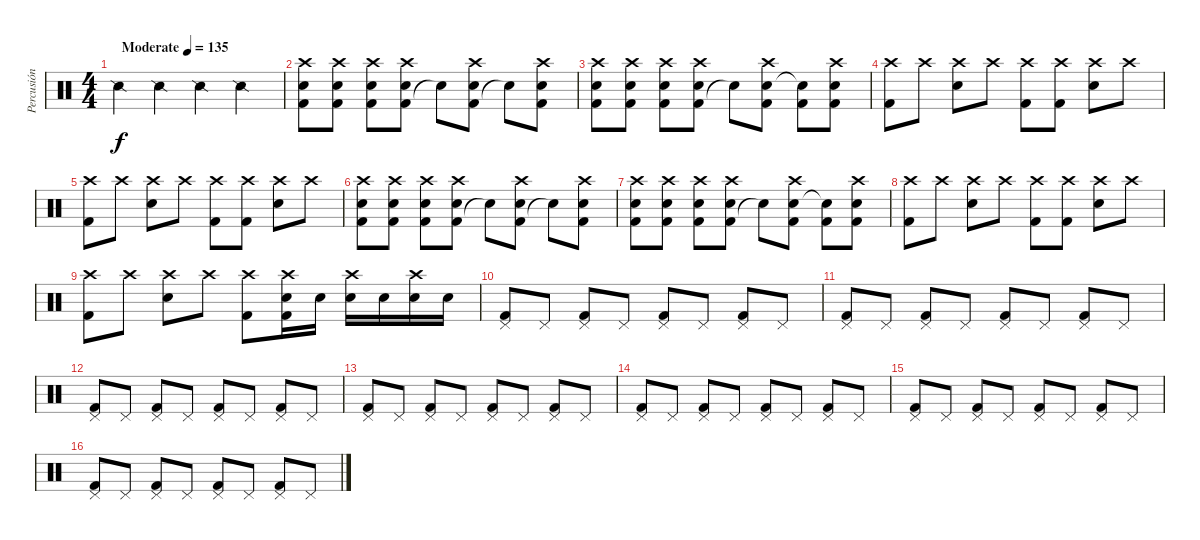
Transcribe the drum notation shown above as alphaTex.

\track ("Percusión" "Percusión") {instrument percussion}
\staff {score}
\articulation defaults
\ts (4 4)
\tempo (135 "Moderate")
\clef neutral
\ks c "Snare (side stick) 2".4{dy f} "Snare (side stick) 2".4 "Snare (side stick) 2".4 "Snare (side stick) 2".4
|
("Kick (hit) 2" "Snare (hit) 2" "Crash high (hit)").8 ("Kick (hit) 2" "Snare (hit) 2" "Crash high (hit)").8 ("Kick (hit) 2" "Snare (hit) 2" "Crash high (hit)").8 ("Kick (hit) 2" "Snare (hit) 2" "Crash high (hit)").8 "Snare (hit)"{t}.8 ("Kick (hit) 2" "Snare (hit) 2" "Crash high (hit)").8 "Snare (hit)"{t}.8 ("Kick (hit) 2" "Snare (hit) 2" "Crash high (hit)").8 |
("Kick (hit) 2" "Snare (hit) 2" "Crash high (hit)").8 ("Kick (hit) 2" "Snare (hit) 2" "Crash high (hit)").8 ("Kick (hit) 2" "Snare (hit) 2" "Crash high (hit)").8 ("Kick (hit) 2" "Snare (hit) 2" "Crash high (hit)").8 "Snare (hit)"{t}.8 ("Kick (hit) 2" "Snare (hit) 2" "Crash high (hit)").8 ("Kick (hit) 2" "Snare (hit)"{t}).8 ("Kick (hit) 2" "Snare (hit) 2" "Crash high (hit)").8 |
("Kick (hit) 2" "Crash high (hit)").8 "Crash high (hit)".8 ("Snare (hit) 2" "Crash high (hit)").8 "Crash high (hit)".8 ("Kick (hit) 2" "Crash high (hit)").8 ("Kick (hit) 2" "Crash high (hit)").8 ("Snare (hit) 2" "Crash high (hit)").8 "Crash high (hit)".8 |
("Kick (hit) 2" "Crash high (hit)").8 "Crash high (hit)".8 ("Snare (hit) 2" "Crash high (hit)").8 "Crash high (hit)".8 ("Kick (hit) 2" "Crash high (hit)").8 ("Kick (hit) 2" "Crash high (hit)").8 ("Snare (hit) 2" "Crash high (hit)").8 "Crash high (hit)".8 |
("Kick (hit) 2" "Snare (hit) 2" "Crash high (hit)").8 ("Kick (hit) 2" "Snare (hit) 2" "Crash high (hit)").8 ("Kick (hit) 2" "Snare (hit) 2" "Crash high (hit)").8 ("Kick (hit) 2" "Snare (hit) 2" "Crash high (hit)").8 "Snare (hit)"{t}.8 ("Kick (hit) 2" "Snare (hit) 2" "Crash high (hit)").8 "Snare (hit)"{t}.8 ("Kick (hit) 2" "Snare (hit) 2" "Crash high (hit)").8 |
("Kick (hit) 2" "Snare (hit) 2" "Crash high (hit)").8 ("Kick (hit) 2" "Snare (hit) 2" "Crash high (hit)").8 ("Kick (hit) 2" "Snare (hit) 2" "Crash high (hit)").8 ("Kick (hit) 2" "Snare (hit) 2" "Crash high (hit)").8 "Snare (hit)"{t}.8 ("Kick (hit) 2" "Snare (hit) 2" "Crash high (hit)").8 ("Kick (hit) 2" "Snare (hit)"{t}).8 ("Kick (hit) 2" "Snare (hit) 2" "Crash high (hit)").8 |
("Kick (hit) 2" "Crash high (hit)").8 "Crash high (hit)".8 ("Snare (hit) 2" "Crash high (hit)").8 "Crash high (hit)".8 ("Kick (hit) 2" "Crash high (hit)").8 ("Kick (hit) 2" "Crash high (hit)").8 ("Snare (hit) 2" "Crash high (hit)").8 "Crash high (hit)".8 |
("Kick (hit) 2" "Crash high (hit)").8 "Crash high (hit)".8 ("Snare (hit) 2" "Crash high (hit)").8 "Crash high (hit)".8 ("Kick (hit) 2" "Crash high (hit)").8 ("Kick (hit) 2" "Snare (hit) 2" "Crash high (hit)").16 "Snare (hit) 2".16 ("Snare (hit) 2" "Crash high (hit)").16 "Snare (hit) 2".16 ("Snare (hit) 2" "Crash high (hit)").16 "Snare (hit) 2".16 |
("Kick (hit) 2" "Pedal Hi-Hat (hit)").8 "Pedal Hi-Hat (hit)".8 ("Kick (hit) 2" "Pedal Hi-Hat (hit)").8 "Pedal Hi-Hat (hit)".8 ("Kick (hit) 2" "Pedal Hi-Hat (hit)").8 "Pedal Hi-Hat (hit)".8 ("Kick (hit) 2" "Pedal Hi-Hat (hit)").8 "Pedal Hi-Hat (hit)".8 |
("Kick (hit) 2" "Pedal Hi-Hat (hit)").8 "Pedal Hi-Hat (hit)".8 ("Kick (hit) 2" "Pedal Hi-Hat (hit)").8 "Pedal Hi-Hat (hit)".8 ("Kick (hit) 2" "Pedal Hi-Hat (hit)").8 "Pedal Hi-Hat (hit)".8 ("Kick (hit) 2" "Pedal Hi-Hat (hit)").8 "Pedal Hi-Hat (hit)".8 |
("Kick (hit) 2" "Pedal Hi-Hat (hit)").8 "Pedal Hi-Hat (hit)".8 ("Kick (hit) 2" "Pedal Hi-Hat (hit)").8 "Pedal Hi-Hat (hit)".8 ("Kick (hit) 2" "Pedal Hi-Hat (hit)").8 "Pedal Hi-Hat (hit)".8 ("Kick (hit) 2" "Pedal Hi-Hat (hit)").8 "Pedal Hi-Hat (hit)".8 |
("Kick (hit) 2" "Pedal Hi-Hat (hit)").8 "Pedal Hi-Hat (hit)".8 ("Kick (hit) 2" "Pedal Hi-Hat (hit)").8 "Pedal Hi-Hat (hit)".8 ("Kick (hit) 2" "Pedal Hi-Hat (hit)").8 "Pedal Hi-Hat (hit)".8 ("Kick (hit) 2" "Pedal Hi-Hat (hit)").8 "Pedal Hi-Hat (hit)".8 |
("Kick (hit) 2" "Pedal Hi-Hat (hit)").8 "Pedal Hi-Hat (hit)".8 ("Kick (hit) 2" "Pedal Hi-Hat (hit)").8 "Pedal Hi-Hat (hit)".8 ("Kick (hit) 2" "Pedal Hi-Hat (hit)").8 "Pedal Hi-Hat (hit)".8 ("Kick (hit) 2" "Pedal Hi-Hat (hit)").8 "Pedal Hi-Hat (hit)".8 |
("Kick (hit) 2" "Pedal Hi-Hat (hit)").8 "Pedal Hi-Hat (hit)".8 ("Kick (hit) 2" "Pedal Hi-Hat (hit)").8 "Pedal Hi-Hat (hit)".8 ("Kick (hit) 2" "Pedal Hi-Hat (hit)").8 "Pedal Hi-Hat (hit)".8 ("Kick (hit) 2" "Pedal Hi-Hat (hit)").8 "Pedal Hi-Hat (hit)".8 |
("Kick (hit) 2" "Pedal Hi-Hat (hit)").8 "Pedal Hi-Hat (hit)".8 ("Kick (hit) 2" "Pedal Hi-Hat (hit)").8 "Pedal Hi-Hat (hit)".8 ("Kick (hit) 2" "Pedal Hi-Hat (hit)").8 "Pedal Hi-Hat (hit)".8 ("Kick (hit) 2" "Pedal Hi-Hat (hit)").8 "Pedal Hi-Hat (hit)".8
